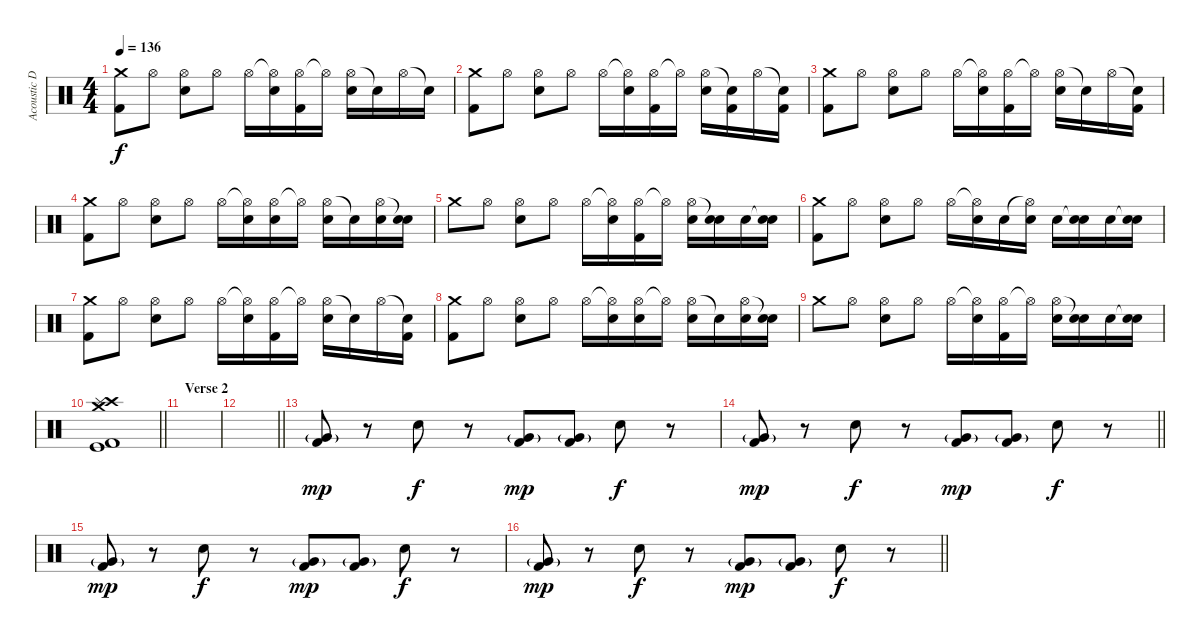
\track ("Acoustic Drums" "Acoustic D") {instrument percussion}
\staff {score}
\articulation defaults
\ts (4 4)
\tempo 136
\clef neutral
\ks c
("Crash medium (hit)" "Kick (hit) 2").8{dy f} "Hi-Hat (open)".8 ("Hi-Hat (open)" "Snare (hit) 2").8 "Hi-Hat (open)".8 "Hi-Hat (open)".16 ("Hi-Hat (open)"{t} "Snare (hit) 2").16 ("Hi-Hat (open)" "Kick (hit) 2").16 "Hi-Hat (open)"{t}.16 ("Hi-Hat (open)" "Snare (hit) 2").16 "Snare (hit)"{t}.16 "Hi-Hat (open)".16 "Snare (hit)"{t}.16 |
("Crash medium (hit)" "Kick (hit) 2").8 "Hi-Hat (open)".8 ("Hi-Hat (open)" "Snare (hit) 2").8 "Hi-Hat (open)".8 "Hi-Hat (open)".16 ("Hi-Hat (open)"{t} "Snare (hit) 2").16 ("Hi-Hat (open)" "Kick (hit) 2").16 "Hi-Hat (open)"{t}.16 ("Hi-Hat (open)" "Snare (hit) 2").16 ("Snare (hit)"{t} "Kick (hit) 2").16 "Hi-Hat (open)".16 ("Snare (hit)"{t} "Kick (hit) 2").16 |
("Crash medium (hit)" "Kick (hit) 2").8 "Hi-Hat (open)".8 ("Hi-Hat (open)" "Snare (hit) 2").8 "Hi-Hat (open)".8 "Hi-Hat (open)".16 ("Hi-Hat (open)"{t} "Snare (hit) 2").16 ("Hi-Hat (open)" "Kick (hit) 2").16 "Hi-Hat (open)"{t}.16 ("Hi-Hat (open)" "Snare (hit) 2").16 "Snare (hit)"{t}.16 "Hi-Hat (open)".16 ("Snare (hit)"{t} "Kick (hit) 2").16 |
("Crash medium (hit)" "Kick (hit) 2").8 "Hi-Hat (open)".8 ("Hi-Hat (open)" "Snare (hit) 2").8 "Hi-Hat (open)".8 "Hi-Hat (open)".16 ("Hi-Hat (open)"{t} "Snare (hit) 2").16 ("Hi-Hat (open)" "Snare (hit) 2").16 "Hi-Hat (open)"{t}.16 ("Hi-Hat (open)" "Snare (hit) 2").16 "Snare (hit)"{t}.16 ("Hi-Hat (open)" "Snare (hit) 2").16 ("Snare (hit)"{t} "Snare (hit) 2").16 |
"Crash medium (hit)".8 "Hi-Hat (open)".8 ("Hi-Hat (open)" "Snare (hit) 2").8 "Hi-Hat (open)".8 "Hi-Hat (open)".16 ("Hi-Hat (open)"{t} "Snare (hit) 2").16 ("Hi-Hat (open)" "Kick (hit) 2").16 "Hi-Hat (open)"{t}.16 ("Hi-Hat (open)" "Snare (hit) 2").16 ("Snare (hit)"{t} "Snare (hit) 2").16 "Snare (hit) 2".16 ("Snare (hit)"{t} "Snare (hit) 2").16 |
("Crash medium (hit)" "Kick (hit) 2").8 "Hi-Hat (open)".8 ("Hi-Hat (open)" "Snare (hit) 2").8 "Hi-Hat (open)".8 "Hi-Hat (open)".16 ("Hi-Hat (open)"{t} "Snare (hit) 2").16 "Snare (hit) 2".16 ("Hi-Hat (open)"{t} "Snare (hit) 2").16 "Snare (hit) 2".16 ("Snare (hit)"{t} "Snare (hit) 2").16 "Snare (hit) 2".16 ("Snare (hit)"{t} "Snare (hit) 2").16 |
("Crash medium (hit)" "Kick (hit) 2").8 "Hi-Hat (open)".8 ("Hi-Hat (open)" "Snare (hit) 2").8 "Hi-Hat (open)".8 "Hi-Hat (open)".16 ("Hi-Hat (open)"{t} "Snare (hit) 2").16 ("Hi-Hat (open)" "Kick (hit) 2").16 "Hi-Hat (open)"{t}.16 ("Hi-Hat (open)" "Snare (hit) 2").16 "Snare (hit)"{t}.16 "Hi-Hat (open)".16 ("Snare (hit)"{t} "Kick (hit) 2").16 |
("Crash medium (hit)" "Kick (hit) 2").8 "Hi-Hat (open)".8 ("Hi-Hat (open)" "Snare (hit) 2").8 "Hi-Hat (open)".8 "Hi-Hat (open)".16 ("Hi-Hat (open)"{t} "Snare (hit) 2").16 ("Hi-Hat (open)" "Snare (hit) 2").16 "Hi-Hat (open)"{t}.16 ("Hi-Hat (open)" "Snare (hit) 2").16 "Snare (hit)"{t}.16 ("Hi-Hat (open)" "Snare (hit) 2").16 ("Snare (hit)"{t} "Snare (hit) 2").16 |
"Crash medium (hit)".8 "Hi-Hat (open)".8 ("Hi-Hat (open)" "Snare (hit) 2").8 "Hi-Hat (open)".8 "Hi-Hat (open)".16 ("Hi-Hat (open)"{t} "Snare (hit) 2").16 ("Hi-Hat (open)" "Kick (hit) 2").16 "Hi-Hat (open)"{t}.16 ("Hi-Hat (open)" "Snare (hit) 2").16 ("Snare (hit)"{t} "Snare (hit) 2").16 "Snare (hit) 2".16 ("Snare (hit)"{t} "Snare (hit) 2").16 |
\barLineRight lightlight
("Crash high (hit)" "Splash (hit)" "Crash medium (hit)" "Kick (hit)" "Kick (hit) 2").1 |
\section ("" "Verse 2")
|
\barLineRight lightlight
|
("Very Low Tom (hit)"{g} "Kick (hit) 2").8{dy mp} r.8 "Snare (hit) 2".8{dy f} r.8 ("Very Low Tom (hit)"{g} "Kick (hit) 2").8{dy mp} ("Very Low Tom (hit)"{g} "Kick (hit) 2").8 "Snare (hit) 2".8{dy f} r.8 |
\barLineRight lightlight
("Very Low Tom (hit)"{g} "Kick (hit) 2").8{dy mp} r.8 "Snare (hit) 2".8{dy f} r.8 ("Very Low Tom (hit)"{g} "Kick (hit) 2").8{dy mp} ("Very Low Tom (hit)"{g} "Kick (hit) 2").8 "Snare (hit) 2".8{dy f} r.8 |
("Very Low Tom (hit)"{g} "Kick (hit) 2").8{dy mp} r.8 "Snare (hit) 2".8{dy f} r.8 ("Very Low Tom (hit)"{g} "Kick (hit) 2").8{dy mp} ("Very Low Tom (hit)"{g} "Kick (hit) 2").8 "Snare (hit) 2".8{dy f} r.8 |
\barLineRight lightlight
("Very Low Tom (hit)"{g} "Kick (hit) 2").8{dy mp} r.8 "Snare (hit) 2".8{dy f} r.8 ("Very Low Tom (hit)"{g} "Kick (hit) 2").8{dy mp} ("Very Low Tom (hit)"{g} "Kick (hit) 2").8 "Snare (hit) 2".8{dy f} r.8
